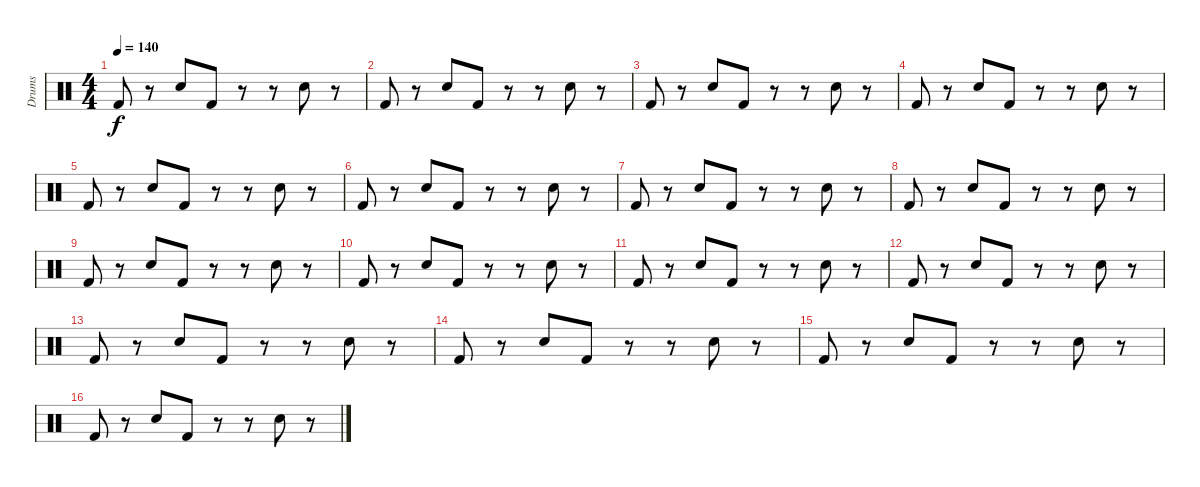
\track ("Drums" "Drums") {instrument percussion}
\staff {score}
\articulation defaults
\ts (4 4)
\tempo 140
\clef neutral
\ks c "Kick (hit) 2".8{dy f}
r.8 "Electric Snare (hit)".8 "Kick (hit) 2".8 r.8 r.8 "Electric Snare (hit)".8 r.8 |
"Kick (hit) 2".8 r.8 "Electric Snare (hit)".8 "Kick (hit) 2".8 r.8 r.8 "Electric Snare (hit)".8 r.8 |
"Kick (hit) 2".8 r.8 "Electric Snare (hit)".8 "Kick (hit) 2".8 r.8 r.8 "Electric Snare (hit)".8 r.8 |
"Kick (hit) 2".8 r.8 "Electric Snare (hit)".8 "Kick (hit) 2".8 r.8 r.8 "Electric Snare (hit)".8 r.8 |
"Kick (hit) 2".8 r.8 "Electric Snare (hit)".8 "Kick (hit) 2".8 r.8 r.8 "Electric Snare (hit)".8 r.8 |
"Kick (hit) 2".8 r.8 "Electric Snare (hit)".8 "Kick (hit) 2".8 r.8 r.8 "Electric Snare (hit)".8 r.8 |
"Kick (hit) 2".8 r.8 "Electric Snare (hit)".8 "Kick (hit) 2".8 r.8 r.8 "Electric Snare (hit)".8 r.8 |
"Kick (hit) 2".8 r.8 "Electric Snare (hit)".8 "Kick (hit) 2".8 r.8 r.8 "Electric Snare (hit)".8 r.8 |
"Kick (hit) 2".8 r.8 "Electric Snare (hit)".8 "Kick (hit) 2".8 r.8 r.8 "Electric Snare (hit)".8 r.8 |
"Kick (hit) 2".8 r.8 "Electric Snare (hit)".8 "Kick (hit) 2".8 r.8 r.8 "Electric Snare (hit)".8 r.8 |
"Kick (hit) 2".8 r.8 "Electric Snare (hit)".8 "Kick (hit) 2".8 r.8 r.8 "Electric Snare (hit)".8 r.8 |
"Kick (hit) 2".8 r.8 "Electric Snare (hit)".8 "Kick (hit) 2".8 r.8 r.8 "Electric Snare (hit)".8 r.8 |
"Kick (hit) 2".8 r.8 "Electric Snare (hit)".8 "Kick (hit) 2".8 r.8 r.8 "Electric Snare (hit)".8 r.8 |
"Kick (hit) 2".8 r.8 "Electric Snare (hit)".8 "Kick (hit) 2".8 r.8 r.8 "Electric Snare (hit)".8 r.8 |
"Kick (hit) 2".8 r.8 "Electric Snare (hit)".8 "Kick (hit) 2".8 r.8 r.8 "Electric Snare (hit)".8 r.8 |
"Kick (hit) 2".8 r.8 "Electric Snare (hit)".8 "Kick (hit) 2".8 r.8 r.8 "Electric Snare (hit)".8 r.8
